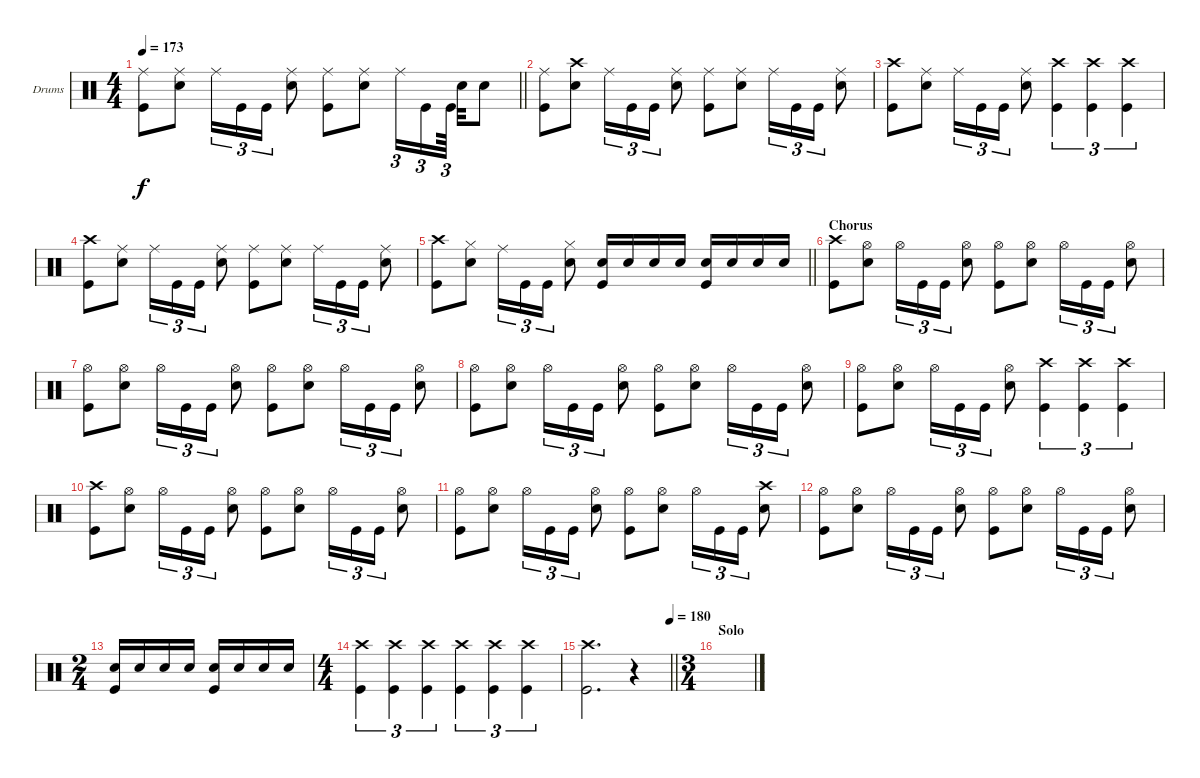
\bracketExtendMode groupsimilarinstruments
\firstSystemTrackNameOrientation horizontal
\otherSystemsTrackNameOrientation horizontal
\track ("Drums" "Drums") {instrument percussion}
\staff {score}
\articulation defaults
\ts (4 4)
\tempo 173
\clef neutral
\barLineRight lightlight
\ks c
("Kick (hit)" "Ride (middle)").8{dy f} ("Snare (hit) 2" "Ride (middle)").8 "Ride (middle)".16{tu (3 2)} "Kick (hit)".16{tu (3 2)} "Kick (hit)".16{tu (3 2)} ("Snare (hit) 2" "Ride (middle)").8 ("Kick (hit)" "Ride (middle)").8 ("Snare (hit) 2" "Ride (middle)").8 "Ride (middle)".16{tu (3 2)} "Kick (hit)".16{tu (3 2)} "Kick (hit)".64{tu (3 2)} "Snare (hit) 2".32 "Snare (hit) 2".8 |
("Kick (hit)" "Ride (middle)").8 ("Snare (hit) 2" "Crash high (hit)").8 "Ride (middle)".16{tu (3 2)} "Kick (hit)".16{tu (3 2)} "Kick (hit)".16{tu (3 2)} ("Snare (hit) 2" "Ride (middle)").8 ("Kick (hit)" "Ride (middle)").8 ("Snare (hit) 2" "Ride (middle)").8 "Ride (middle)".16{tu (3 2)} "Kick (hit)".16{tu (3 2)} "Kick (hit)".16{tu (3 2)} ("Snare (hit) 2" "Ride (middle)").8 |
("Kick (hit)" "Crash high (hit)").8 ("Snare (hit) 2" "Ride (middle)").8 "Ride (middle)".16{tu (3 2)} "Kick (hit)".16{tu (3 2)} "Kick (hit)".16{tu (3 2)} ("Snare (hit) 2" "Ride (middle)").8 ("Crash high (hit)" "Kick (hit)").4{tu (3 2)} ("Crash high (hit)" "Kick (hit)").4{tu (3 2)} ("Crash high (hit)" "Kick (hit)").4{tu (3 2)} |
("Crash high (hit)" "Kick (hit)").8 ("Snare (hit) 2" "Ride (middle)").8 "Ride (middle)".16{tu (3 2)} "Kick (hit)".16{tu (3 2)} "Kick (hit)".16{tu (3 2)} ("Snare (hit) 2" "Ride (middle)").8 ("Kick (hit)" "Ride (middle)").8 ("Snare (hit) 2" "Ride (middle)").8 "Ride (middle)".16{tu (3 2)} "Kick (hit)".16{tu (3 2)} "Kick (hit)".16{tu (3 2)} ("Snare (hit) 2" "Ride (middle)").8 |
\barLineRight lightlight
("Kick (hit)" "Crash high (hit)").8 ("Hi-Hat (closed)" "Snare (hit) 2").8 "Ride (middle)".16{tu (3 2)} "Kick (hit)".16{tu (3 2)} "Kick (hit)".16{tu (3 2)} ("Hi-Hat (closed)" "Snare (hit) 2").8 ("Snare (hit) 2" "Kick (hit)").16 "Snare (hit) 2".16 "Snare (hit) 2".16 "Snare (hit) 2".16 ("Snare (hit) 2" "Kick (hit)").16 "Snare (hit) 2".16 "Snare (hit) 2".16 "Snare (hit) 2".16 |
\section ("" "Chorus")
("Crash high (hit)" "Kick (hit)").8 ("Hi-Hat (open)" "Snare (hit) 2").8 "Hi-Hat (open)".16{tu (3 2)} "Kick (hit)".16{tu (3 2)} "Kick (hit)".16{tu (3 2)} ("Hi-Hat (open)" "Snare (hit) 2").8 ("Hi-Hat (open)" "Kick (hit)").8 ("Hi-Hat (open)" "Snare (hit) 2").8 "Hi-Hat (open)".16{tu (3 2)} "Kick (hit)".16{tu (3 2)} "Kick (hit)".16{tu (3 2)} ("Hi-Hat (open)" "Snare (hit) 2").8 |
("Hi-Hat (open)" "Kick (hit)").8 ("Hi-Hat (open)" "Snare (hit) 2").8 "Hi-Hat (open)".16{tu (3 2)} "Kick (hit)".16{tu (3 2)} "Kick (hit)".16{tu (3 2)} ("Hi-Hat (open)" "Snare (hit) 2").8 ("Hi-Hat (open)" "Kick (hit)").8 ("Hi-Hat (open)" "Snare (hit) 2").8 "Hi-Hat (open)".16{tu (3 2)} "Kick (hit)".16{tu (3 2)} "Kick (hit)".16{tu (3 2)} ("Hi-Hat (open)" "Snare (hit) 2").8 |
("Hi-Hat (open)" "Kick (hit)").8 ("Hi-Hat (open)" "Snare (hit) 2").8 "Hi-Hat (open)".16{tu (3 2)} "Kick (hit)".16{tu (3 2)} "Kick (hit)".16{tu (3 2)} ("Hi-Hat (open)" "Snare (hit) 2").8 ("Hi-Hat (open)" "Kick (hit)").8 ("Hi-Hat (open)" "Snare (hit) 2").8 "Hi-Hat (open)".16{tu (3 2)} "Kick (hit)".16{tu (3 2)} "Kick (hit)".16{tu (3 2)} ("Hi-Hat (open)" "Snare (hit) 2").8 |
("Hi-Hat (open)" "Kick (hit)").8 ("Hi-Hat (open)" "Snare (hit) 2").8 "Hi-Hat (open)".16{tu (3 2)} "Kick (hit)".16{tu (3 2)} "Kick (hit)".16{tu (3 2)} ("Hi-Hat (open)" "Snare (hit) 2").8 ("Crash high (hit)" "Kick (hit)").4{tu (3 2)} ("Crash high (hit)" "Kick (hit)").4{tu (3 2)} ("Crash high (hit)" "Kick (hit)").4{tu (3 2)} |
("Crash high (hit)" "Kick (hit)").8 ("Hi-Hat (open)" "Snare (hit) 2").8 "Hi-Hat (open)".16{tu (3 2)} "Kick (hit)".16{tu (3 2)} "Kick (hit)".16{tu (3 2)} ("Hi-Hat (open)" "Snare (hit) 2").8 ("Hi-Hat (open)" "Kick (hit)").8 ("Hi-Hat (open)" "Snare (hit) 2").8 "Hi-Hat (open)".16{tu (3 2)} "Kick (hit)".16{tu (3 2)} "Kick (hit)".16{tu (3 2)} ("Hi-Hat (open)" "Snare (hit) 2").8 |
("Hi-Hat (open)" "Kick (hit)").8 ("Hi-Hat (open)" "Snare (hit) 2").8 "Hi-Hat (open)".16{tu (3 2)} "Kick (hit)".16{tu (3 2)} "Kick (hit)".16{tu (3 2)} ("Hi-Hat (open)" "Snare (hit) 2").8 ("Hi-Hat (open)" "Kick (hit)").8 ("Hi-Hat (open)" "Snare (hit) 2").8 "Hi-Hat (open)".16{tu (3 2)} "Kick (hit)".16{tu (3 2)} "Kick (hit)".16{tu (3 2)} ("Snare (hit) 2" "Crash high (hit)").8 |
("Hi-Hat (open)" "Kick (hit)").8 ("Hi-Hat (open)" "Snare (hit) 2").8 "Hi-Hat (open)".16{tu (3 2)} "Kick (hit)".16{tu (3 2)} "Kick (hit)".16{tu (3 2)} ("Hi-Hat (open)" "Snare (hit) 2").8 ("Hi-Hat (open)" "Kick (hit)").8 ("Hi-Hat (open)" "Snare (hit) 2").8 "Hi-Hat (open)".16{tu (3 2)} "Kick (hit)".16{tu (3 2)} "Kick (hit)".16{tu (3 2)} ("Hi-Hat (open)" "Snare (hit) 2").8 |
\ts (2 4)
("Snare (hit) 2" "Kick (hit)").16 "Snare (hit) 2".16 "Snare (hit) 2".16 "Snare (hit) 2".16 ("Snare (hit) 2" "Kick (hit)").16 "Snare (hit) 2".16 "Snare (hit) 2".16 "Snare (hit) 2".16 |
\ts (4 4)
("Crash high (hit)" "Kick (hit)").4{tu (3 2)} ("Crash high (hit)" "Kick (hit)").4{tu (3 2)} ("Crash high (hit)" "Kick (hit)").4{tu (3 2)} ("Crash high (hit)" "Kick (hit)").4{tu (3 2)} ("Crash high (hit)" "Kick (hit)").4{tu (3 2)} ("Crash high (hit)" "Kick (hit)").4{tu (3 2)} |
\tempo (180 1)
\barLineRight lightlight
("Crash high (hit)" "Kick (hit)").2{d} r.4 |
\ts (3 4)
\section ("" "Solo")
